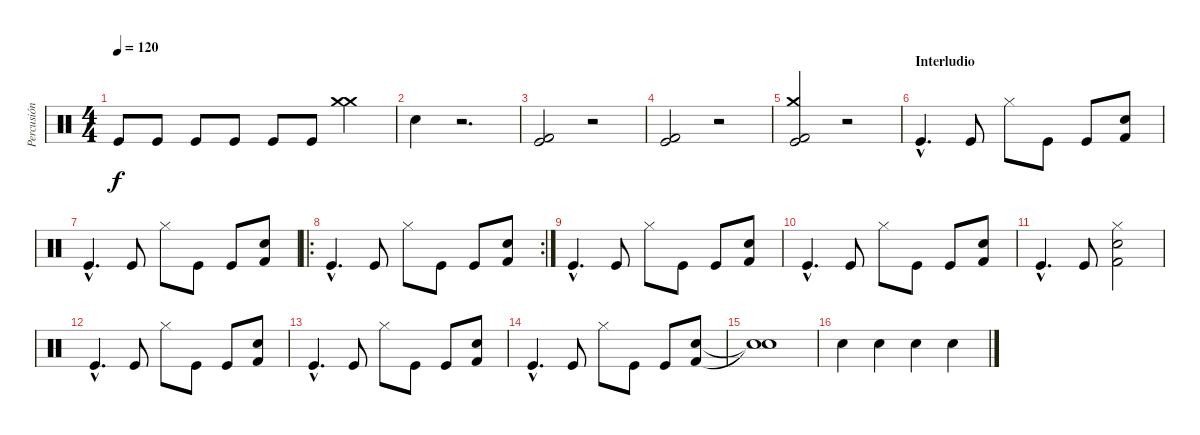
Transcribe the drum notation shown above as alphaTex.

\track ("Percusión" "Percusión") {instrument percussion}
\staff {score}
\articulation defaults
\ts (4 4)
\tempo 120
\clef neutral
\ks c "Kick (hit)".8{dy f} "Kick (hit)".8 "Kick (hit)".8 "Kick (hit)".8 "Kick (hit)".8 "Kick (hit)".8
("Crash medium (hit)" "Crash medium (hit)").4 |
"Snare (hit) 2".4 r.2{d} |
("Kick (hit)" "Kick (hit) 2").2 r.2 |
("Kick (hit)" "Kick (hit) 2").2 r.2 |
("Crash medium (hit)" "Kick (hit)" "Kick (hit) 2").2 r.2 |
\section ("" "Interludio")
"Kick (hit)"{hac}.4{d} "Kick (hit)".8 "Hi-Hat (closed)".8 "Kick (hit)".8 "Kick (hit)".8 ("Snare (hit) 2" "Kick (hit) 2").8 |
"Kick (hit)"{hac}.4{d} "Kick (hit)".8 "Hi-Hat (closed)".8 "Kick (hit)".8 "Kick (hit)".8 ("Snare (hit) 2" "Kick (hit) 2").8 |
\ro
\rc 2 "Kick (hit)"{hac}.4{d} "Kick (hit)".8 "Hi-Hat (closed)".8 "Kick (hit)".8 "Kick (hit)".8
("Snare (hit) 2" "Kick (hit) 2").8 |
"Kick (hit)"{hac}.4{d} "Kick (hit)".8 "Hi-Hat (closed)".8 "Kick (hit)".8 "Kick (hit)".8 ("Snare (hit) 2" "Kick (hit) 2").8 |
"Kick (hit)"{hac}.4{d} "Kick (hit)".8 "Hi-Hat (closed)".8 "Kick (hit)".8 "Kick (hit)".8 ("Snare (hit) 2" "Kick (hit) 2").8 |
"Kick (hit)"{hac}.4{d} "Kick (hit)".8 ("Kick (hit) 2" "Snare (hit) 2" "Hi-Hat (closed)").2 |
"Kick (hit)"{hac}.4{d} "Kick (hit)".8 "Hi-Hat (closed)".8 "Kick (hit)".8 "Kick (hit)".8 ("Snare (hit) 2" "Kick (hit) 2").8 |
"Kick (hit)"{hac}.4{d} "Kick (hit)".8 "Hi-Hat (closed)".8 "Kick (hit)".8 "Kick (hit)".8 ("Snare (hit) 2" "Kick (hit) 2").8 |
"Kick (hit)"{hac}.4{d} "Kick (hit)".8 "Hi-Hat (closed)".8 "Kick (hit)".8 "Kick (hit)".8 ("Snare (hit) 2" "Kick (hit) 2").8 |
("Snare (hit)"{t} "Snare (hit)"{t}).1 |
"Snare (hit) 2".4 "Snare (hit) 2".4 "Snare (hit) 2".4 "Snare (hit) 2".4
